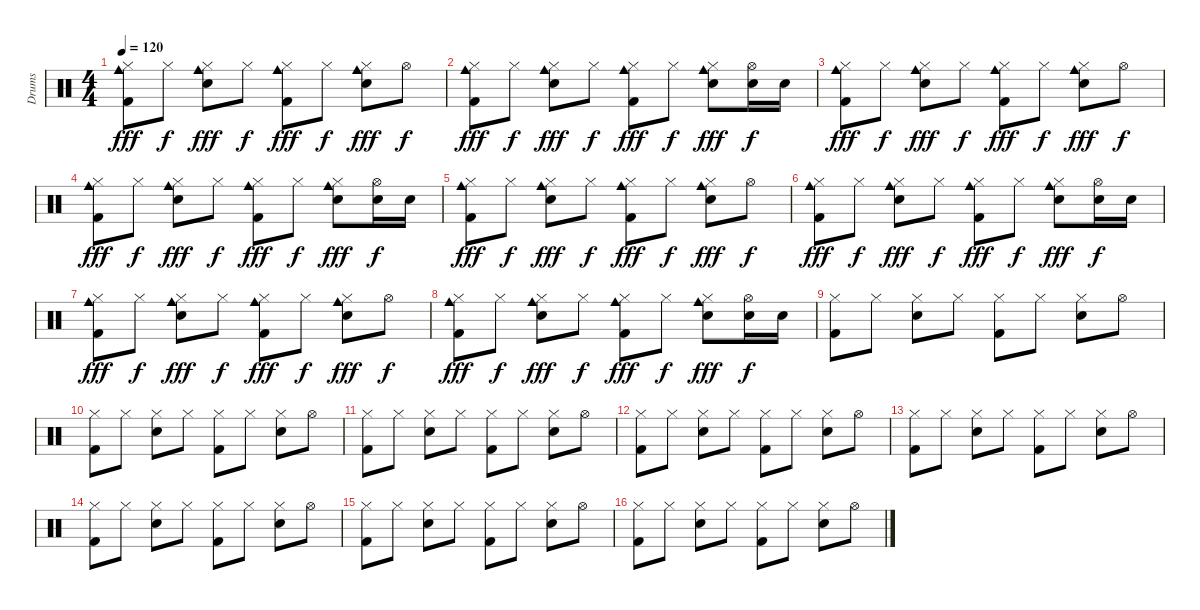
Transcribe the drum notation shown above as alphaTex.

\track ("Drums" "Drums") {instrument percussion}
\staff {score}
\articulation defaults
\ts (4 4)
\tempo 120
\clef neutral
\ks c
("Cowbell medium (hit)" "Hi-Hat (closed)" "Kick (hit) 2").8{dy fff} "Hi-Hat (closed)".8{dy f} ("Cowbell medium (hit)" "Hi-Hat (closed)" "Electric Snare (hit)").8{dy fff} "Hi-Hat (closed)".8{dy f} ("Cowbell medium (hit)" "Hi-Hat (closed)" "Kick (hit) 2").8{dy fff} "Hi-Hat (closed)".8{dy f} ("Cowbell medium (hit)" "Hi-Hat (closed)" "Electric Snare (hit)").8{dy fff} "Hi-Hat (open)".8{dy f} |
("Cowbell medium (hit)" "Hi-Hat (closed)" "Kick (hit) 2").8{dy fff} "Hi-Hat (closed)".8{dy f} ("Cowbell medium (hit)" "Hi-Hat (closed)" "Electric Snare (hit)").8{dy fff} "Hi-Hat (closed)".8{dy f} ("Cowbell medium (hit)" "Hi-Hat (closed)" "Kick (hit) 2").8{dy fff} "Hi-Hat (closed)".8{dy f} ("Cowbell medium (hit)" "Hi-Hat (closed)" "Electric Snare (hit)").8{dy fff} ("Electric Snare (hit)" "Hi-Hat (open)").16{dy f} "Electric Snare (hit)".16 |
("Cowbell medium (hit)" "Hi-Hat (closed)" "Kick (hit) 2").8{dy fff} "Hi-Hat (closed)".8{dy f} ("Cowbell medium (hit)" "Hi-Hat (closed)" "Electric Snare (hit)").8{dy fff} "Hi-Hat (closed)".8{dy f} ("Cowbell medium (hit)" "Hi-Hat (closed)" "Kick (hit) 2").8{dy fff} "Hi-Hat (closed)".8{dy f} ("Cowbell medium (hit)" "Hi-Hat (closed)" "Electric Snare (hit)").8{dy fff} "Hi-Hat (open)".8{dy f} |
("Cowbell medium (hit)" "Hi-Hat (closed)" "Kick (hit) 2").8{dy fff} "Hi-Hat (closed)".8{dy f} ("Cowbell medium (hit)" "Hi-Hat (closed)" "Electric Snare (hit)").8{dy fff} "Hi-Hat (closed)".8{dy f} ("Cowbell medium (hit)" "Hi-Hat (closed)" "Kick (hit) 2").8{dy fff} "Hi-Hat (closed)".8{dy f} ("Cowbell medium (hit)" "Hi-Hat (closed)" "Electric Snare (hit)").8{dy fff} ("Electric Snare (hit)" "Hi-Hat (open)").16{dy f} "Electric Snare (hit)".16 |
("Cowbell medium (hit)" "Hi-Hat (closed)" "Kick (hit) 2").8{dy fff} "Hi-Hat (closed)".8{dy f} ("Cowbell medium (hit)" "Hi-Hat (closed)" "Electric Snare (hit)").8{dy fff} "Hi-Hat (closed)".8{dy f} ("Cowbell medium (hit)" "Hi-Hat (closed)" "Kick (hit) 2").8{dy fff} "Hi-Hat (closed)".8{dy f} ("Cowbell medium (hit)" "Hi-Hat (closed)" "Electric Snare (hit)").8{dy fff} "Hi-Hat (open)".8{dy f} |
("Cowbell medium (hit)" "Hi-Hat (closed)" "Kick (hit) 2").8{dy fff} "Hi-Hat (closed)".8{dy f} ("Cowbell medium (hit)" "Hi-Hat (closed)" "Electric Snare (hit)").8{dy fff} "Hi-Hat (closed)".8{dy f} ("Cowbell medium (hit)" "Hi-Hat (closed)" "Kick (hit) 2").8{dy fff} "Hi-Hat (closed)".8{dy f} ("Cowbell medium (hit)" "Hi-Hat (closed)" "Electric Snare (hit)").8{dy fff} ("Electric Snare (hit)" "Hi-Hat (open)").16{dy f} "Electric Snare (hit)".16 |
("Cowbell medium (hit)" "Hi-Hat (closed)" "Kick (hit) 2").8{dy fff} "Hi-Hat (closed)".8{dy f} ("Cowbell medium (hit)" "Hi-Hat (closed)" "Electric Snare (hit)").8{dy fff} "Hi-Hat (closed)".8{dy f} ("Cowbell medium (hit)" "Hi-Hat (closed)" "Kick (hit) 2").8{dy fff} "Hi-Hat (closed)".8{dy f} ("Cowbell medium (hit)" "Hi-Hat (closed)" "Electric Snare (hit)").8{dy fff} "Hi-Hat (open)".8{dy f} |
("Cowbell medium (hit)" "Hi-Hat (closed)" "Kick (hit) 2").8{dy fff} "Hi-Hat (closed)".8{dy f} ("Cowbell medium (hit)" "Hi-Hat (closed)" "Electric Snare (hit)").8{dy fff} "Hi-Hat (closed)".8{dy f} ("Cowbell medium (hit)" "Hi-Hat (closed)" "Kick (hit) 2").8{dy fff} "Hi-Hat (closed)".8{dy f} ("Cowbell medium (hit)" "Hi-Hat (closed)" "Electric Snare (hit)").8{dy fff} ("Electric Snare (hit)" "Hi-Hat (open)").16{dy f} "Electric Snare (hit)".16 |
("Hi-Hat (closed)" "Kick (hit) 2").8 "Hi-Hat (closed)".8 ("Hi-Hat (closed)" "Electric Snare (hit)").8 "Hi-Hat (closed)".8 ("Hi-Hat (closed)" "Kick (hit) 2").8 "Hi-Hat (closed)".8 ("Hi-Hat (closed)" "Electric Snare (hit)").8 "Hi-Hat (open)".8 |
("Hi-Hat (closed)" "Kick (hit) 2").8 "Hi-Hat (closed)".8 ("Hi-Hat (closed)" "Electric Snare (hit)").8 "Hi-Hat (closed)".8 ("Hi-Hat (closed)" "Kick (hit) 2").8 "Hi-Hat (closed)".8 ("Hi-Hat (closed)" "Electric Snare (hit)").8 "Hi-Hat (open)".8 |
("Hi-Hat (closed)" "Kick (hit) 2").8 "Hi-Hat (closed)".8 ("Hi-Hat (closed)" "Electric Snare (hit)").8 "Hi-Hat (closed)".8 ("Hi-Hat (closed)" "Kick (hit) 2").8 "Hi-Hat (closed)".8 ("Hi-Hat (closed)" "Electric Snare (hit)").8 "Hi-Hat (open)".8 |
("Hi-Hat (closed)" "Kick (hit) 2").8 "Hi-Hat (closed)".8 ("Hi-Hat (closed)" "Electric Snare (hit)").8 "Hi-Hat (closed)".8 ("Hi-Hat (closed)" "Kick (hit) 2").8 "Hi-Hat (closed)".8 ("Hi-Hat (closed)" "Electric Snare (hit)").8 "Hi-Hat (open)".8 |
("Hi-Hat (closed)" "Kick (hit) 2").8 "Hi-Hat (closed)".8 ("Hi-Hat (closed)" "Electric Snare (hit)").8 "Hi-Hat (closed)".8 ("Hi-Hat (closed)" "Kick (hit) 2").8 "Hi-Hat (closed)".8 ("Hi-Hat (closed)" "Electric Snare (hit)").8 "Hi-Hat (open)".8 |
("Hi-Hat (closed)" "Kick (hit) 2").8 "Hi-Hat (closed)".8 ("Hi-Hat (closed)" "Electric Snare (hit)").8 "Hi-Hat (closed)".8 ("Hi-Hat (closed)" "Kick (hit) 2").8 "Hi-Hat (closed)".8 ("Hi-Hat (closed)" "Electric Snare (hit)").8 "Hi-Hat (open)".8 |
("Hi-Hat (closed)" "Kick (hit) 2").8 "Hi-Hat (closed)".8 ("Hi-Hat (closed)" "Electric Snare (hit)").8 "Hi-Hat (closed)".8 ("Hi-Hat (closed)" "Kick (hit) 2").8 "Hi-Hat (closed)".8 ("Hi-Hat (closed)" "Electric Snare (hit)").8 "Hi-Hat (open)".8 |
("Hi-Hat (closed)" "Kick (hit) 2").8 "Hi-Hat (closed)".8 ("Hi-Hat (closed)" "Electric Snare (hit)").8 "Hi-Hat (closed)".8 ("Hi-Hat (closed)" "Kick (hit) 2").8 "Hi-Hat (closed)".8 ("Hi-Hat (closed)" "Electric Snare (hit)").8 "Hi-Hat (open)".8
